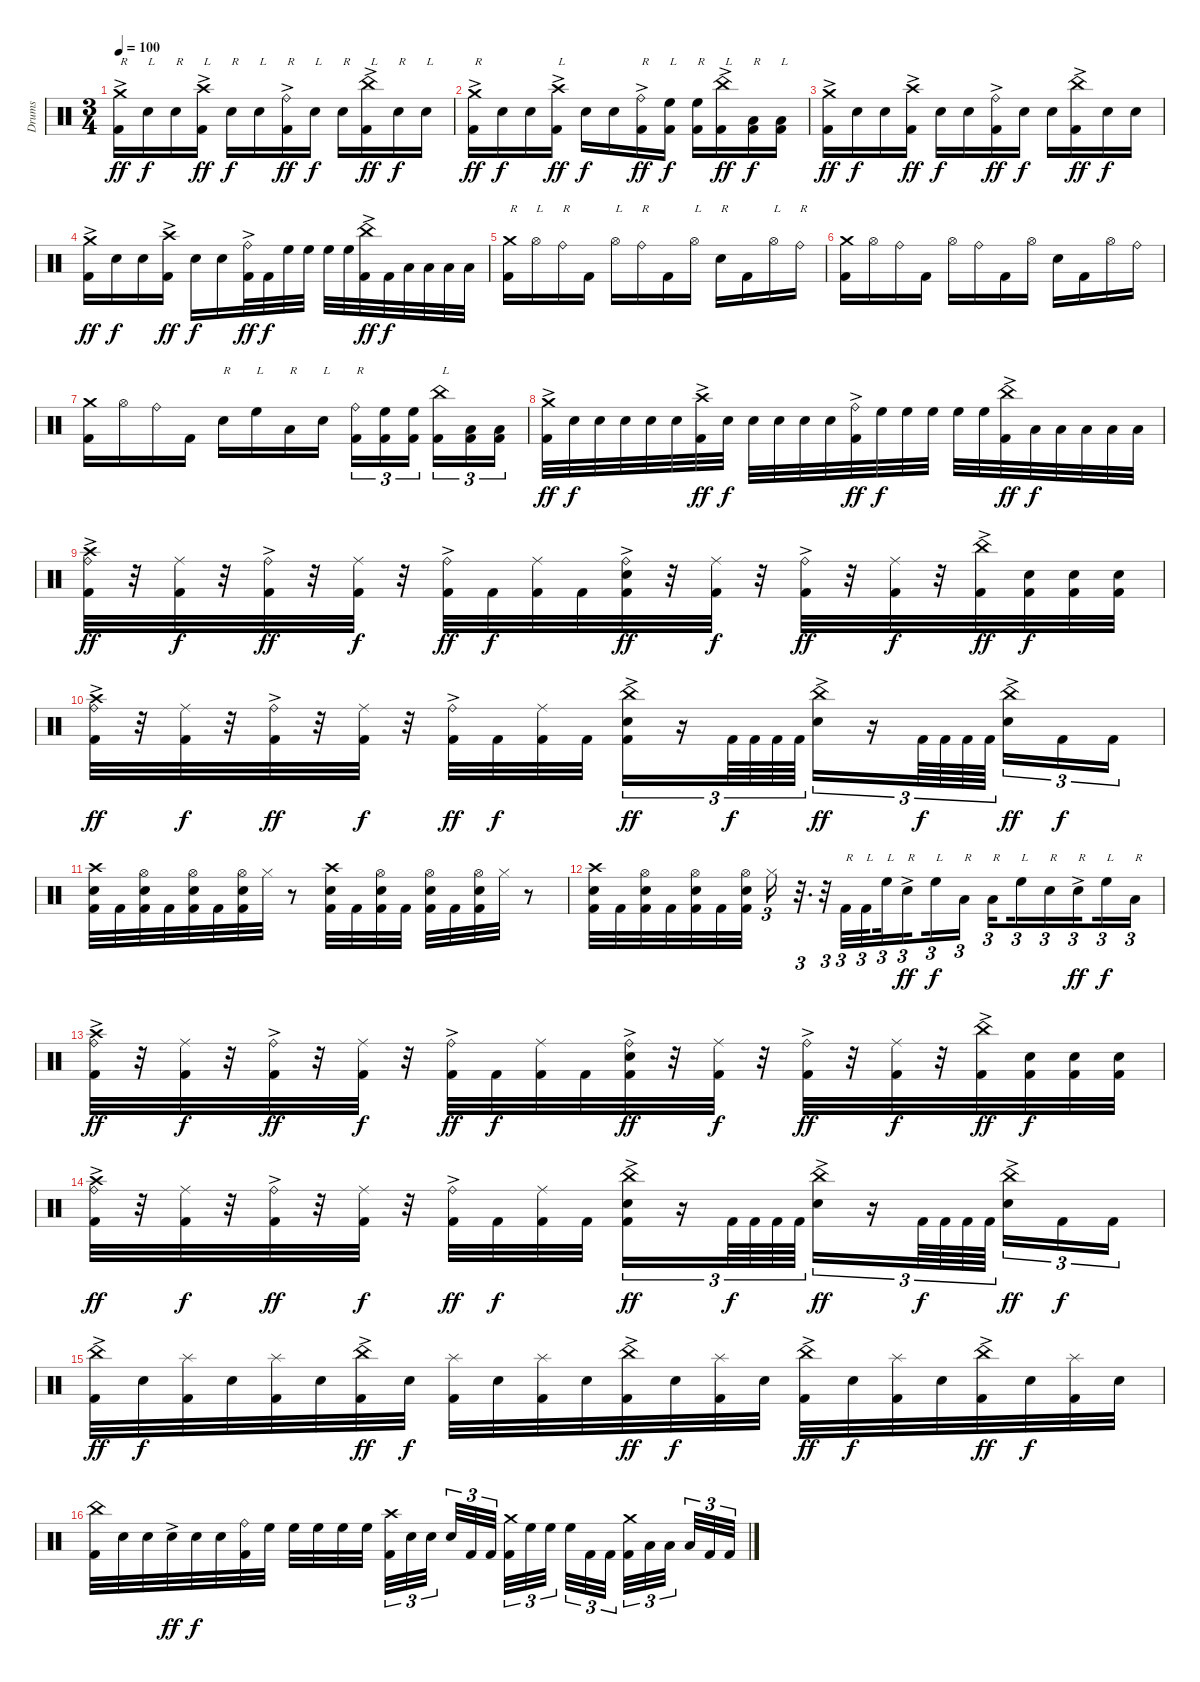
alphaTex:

\track ("Drums" "Drums") {instrument percussion}
\staff {score}
\articulation defaults
\ts (3 4)
\tempo 100
\clef neutral
\ks c
("Kick (hit) 2" "Crash medium (hit)"{ac}).16{txt "R" dy ff} "Electric Snare (hit)".16{txt "L" dy f} "Electric Snare (hit)".16{txt "R"} ("Crash high (hit)"{ac} "Kick (hit) 2").16{txt "L" dy ff} "Electric Snare (hit)".16{txt "R" dy f} "Electric Snare (hit)".16{txt "L"} ("Ride (bell)"{ac} "Kick (hit) 2").16{txt "R" dy ff} "Electric Snare (hit)".16{txt "L" dy f} "Electric Snare (hit)".16{txt "R"} ("China (hit)"{ac} "Kick (hit) 2").16{txt "L" dy ff} "Electric Snare (hit)".16{txt "R" dy f} "Electric Snare (hit)".16{txt "L"} |
("Kick (hit) 2" "Crash medium (hit)"{ac}).16{txt "R" dy ff} "Electric Snare (hit)".16{dy f} "Electric Snare (hit)".16 ("Crash high (hit)"{ac} "Kick (hit) 2").16{txt "L" dy ff} "Electric Snare (hit)".16{dy f} "Electric Snare (hit)".16 ("Ride (bell)"{ac} "Kick (hit) 2").16{txt "R" dy ff} ("Kick (hit) 2" "High Floor Tom (hit)").16{txt "L" dy f} ("High Floor Tom (hit)" "Kick (hit) 2").16{txt "R"} ("China (hit)"{ac} "Kick (hit) 2").16{txt "L" dy ff} ("Low Tom (hit)" "Kick (hit) 2").16{txt "R" dy f} ("Kick (hit) 2" "Low Tom (hit)").16{txt "L"} |
("Kick (hit) 2" "Crash medium (hit)"{ac}).16{dy ff} "Electric Snare (hit)".16{dy f} "Electric Snare (hit)".16 ("Crash high (hit)"{ac} "Kick (hit) 2").16{dy ff} "Electric Snare (hit)".16{dy f} "Electric Snare (hit)".16 ("Ride (bell)"{ac} "Kick (hit) 2").16{dy ff} "Electric Snare (hit)".16{dy f} "Electric Snare (hit)".16 ("China (hit)"{ac} "Kick (hit) 2").16{dy ff} "Electric Snare (hit)".16{dy f} "Electric Snare (hit)".16 |
("Kick (hit) 2" "Crash medium (hit)"{ac}).16{dy ff} "Electric Snare (hit)".16{dy f} "Electric Snare (hit)".16 ("Crash high (hit)"{ac} "Kick (hit) 2").16{dy ff} "Electric Snare (hit)".16{dy f} "Electric Snare (hit)".16 ("Ride (bell)"{ac} "Kick (hit) 2").32{dy ff} "Kick (hit) 2".32{dy f} "High Floor Tom (hit)".32 "High Floor Tom (hit)".32 "High Floor Tom (hit)".32 "High Floor Tom (hit)".32 ("China (hit)"{ac} "Kick (hit) 2").32{dy ff} "Kick (hit) 2".32{dy f} "Low Tom (hit)".32 "Low Tom (hit)".32 "Low Tom (hit)".32 "Low Tom (hit)".32 |
("Kick (hit) 2" "Crash medium (hit)").16{txt "R"} "Hi-Hat (open)".16{txt "L"} "Ride (bell)".16{txt "R"} "Kick (hit) 2".16 "Hi-Hat (open)".16{txt "L"} "Ride (bell)".16{txt "R"} "Kick (hit) 2".16 "Hi-Hat (open)".16{txt "L"} "Electric Snare (hit)".16{txt "R"} "Kick (hit) 2".16 "Hi-Hat (open)".16{txt "L"} "Ride (bell)".16{txt "R"} |
("Kick (hit) 2" "Crash medium (hit)").16 "Hi-Hat (open)".16 "Ride (bell)".16 "Kick (hit) 2".16 "Hi-Hat (open)".16 "Ride (bell)".16 "Kick (hit) 2".16 "Hi-Hat (open)".16 "Electric Snare (hit)".16 "Kick (hit) 2".16 "Hi-Hat (open)".16 "Ride (bell)".16 |
("Kick (hit) 2" "Crash medium (hit)").16 "Hi-Hat (open)".16 "Ride (bell)".16 "Kick (hit) 2".16 "Electric Snare (hit)".16{txt "R"} "High Floor Tom (hit)".16{txt "L"} "Low Tom (hit)".16{txt "R"} "Electric Snare (hit)".16{txt "L"} ("Ride (bell)" "Kick (hit) 2").16{tu (3 2) txt "R"} ("Kick (hit) 2" "High Floor Tom (hit)").16{tu (3 2)} ("High Floor Tom (hit)" "Kick (hit) 2").16{tu (3 2) beam splitsecondary} ("China (hit)" "Kick (hit) 2").16{tu (3 2) txt "L"} ("Low Tom (hit)" "Kick (hit) 2").16{tu (3 2)} ("Kick (hit) 2" "Low Tom (hit)").16{tu (3 2)} |
("Kick (hit) 2" "Crash medium (hit)"{ac}).32{dy ff} "Electric Snare (hit)".32{dy f} "Electric Snare (hit)".32 "Electric Snare (hit)".32 "Electric Snare (hit)".32 "Electric Snare (hit)".32 ("Crash high (hit)"{ac} "Kick (hit) 2").32{dy ff} "Electric Snare (hit)".32{dy f} "Electric Snare (hit)".32 "Electric Snare (hit)".32 "Electric Snare (hit)".32 "Electric Snare (hit)".32 ("Ride (bell)"{ac} "Kick (hit) 2").32{dy ff} "High Floor Tom (hit)".32{dy f} "High Floor Tom (hit)".32 "High Floor Tom (hit)".32 "High Floor Tom (hit)".32 "High Floor Tom (hit)".32 ("China (hit)"{ac} "Kick (hit) 2").32{dy ff} "Low Tom (hit)".32{dy f} "Low Tom (hit)".32 "Low Tom (hit)".32 "Low Tom (hit)".32 "Low Tom (hit)".32 |
("Ride (bell)"{ac} "Kick (hit) 2" "Crash high (hit)").32{dy ff} r.32 ("Ride (middle)" "Kick (hit) 2").32{dy f} r.32 ("Ride (bell)"{ac} "Kick (hit) 2").32{dy ff} r.32 ("Ride (middle)" "Kick (hit) 2").32{dy f} r.32 ("Ride (bell)"{ac} "Kick (hit) 2").32{dy ff} "Kick (hit) 2".32{dy f} ("Ride (middle)" "Kick (hit) 2").32 "Kick (hit) 2".32 ("Ride (bell)"{ac} "Kick (hit) 2" "Electric Snare (hit)").32{dy ff} r.32 ("Ride (middle)" "Kick (hit) 2").32{dy f} r.32 ("Ride (bell)"{ac} "Kick (hit) 2").32{dy ff} r.32 ("Ride (middle)" "Kick (hit) 2").32{dy f} r.32 ("China (hit)"{ac} "Kick (hit) 2").32{dy ff} ("Kick (hit) 2" "Electric Snare (hit)").32{dy f} ("Kick (hit) 2" "Electric Snare (hit)").32 ("Kick (hit) 2" "Electric Snare (hit)").32 |
("Ride (bell)"{ac} "Kick (hit) 2" "Crash high (hit)").32{dy ff} r.32 ("Ride (middle)" "Kick (hit) 2").32{dy f} r.32 ("Ride (bell)"{ac} "Kick (hit) 2").32{dy ff} r.32 ("Ride (middle)" "Kick (hit) 2").32{dy f} r.32 ("Ride (bell)"{ac} "Kick (hit) 2").32{dy ff} "Kick (hit) 2".32{dy f} ("Ride (middle)" "Kick (hit) 2").32 "Kick (hit) 2".32{beam splitsecondary} ("China (hit)" "Kick (hit) 2" "Electric Snare (hit)"{ac}).16{tu (3 2) dy ff} r.16{tu (3 2)} "Kick (hit) 2".64{tu (3 2) dy f} "Kick (hit) 2".64{tu (3 2)} "Kick (hit) 2".64{tu (3 2)} "Kick (hit) 2".64{tu (3 2)} ("China (hit)" "Electric Snare (hit)"{ac}).16{tu (3 2) dy ff} r.16{tu (3 2)} "Kick (hit) 2".64{tu (3 2) dy f} "Kick (hit) 2".64{tu (3 2)} "Kick (hit) 2".64{tu (3 2)} "Kick (hit) 2".64{tu (3 2) beam splitsecondary} ("China (hit)" "Electric Snare (hit)"{ac}).16{tu (3 2) dy ff} "Kick (hit) 2".16{tu (3 2) dy f} "Kick (hit) 2".16{tu (3 2)} |
("Crash high (hit)" "Electric Snare (hit)" "Kick (hit) 2").32 "Kick (hit) 2".32 ("Kick (hit) 2" "Electric Snare (hit)" "Hi-Hat (open)").32 "Kick (hit) 2".32 ("Hi-Hat (open)" "Electric Snare (hit)" "Kick (hit) 2").32 "Kick (hit) 2".32 ("Hi-Hat (open)" "Electric Snare (hit)" "Kick (hit) 2").32 "Hi-Hat (closed)".32 r.8 ("Crash high (hit)" "Electric Snare (hit)" "Kick (hit) 2").32 "Kick (hit) 2".32 ("Kick (hit) 2" "Electric Snare (hit)" "Hi-Hat (open)").32 "Kick (hit) 2".32 ("Hi-Hat (open)" "Electric Snare (hit)" "Kick (hit) 2").32 "Kick (hit) 2".32 ("Hi-Hat (open)" "Electric Snare (hit)" "Kick (hit) 2").32 "Hi-Hat (closed)".32 r.8 |
("Crash high (hit)" "Electric Snare (hit)" "Kick (hit) 2").32 "Kick (hit) 2".32 ("Kick (hit) 2" "Electric Snare (hit)" "Hi-Hat (open)").32 "Kick (hit) 2".32 ("Hi-Hat (open)" "Electric Snare (hit)" "Kick (hit) 2").32 "Kick (hit) 2".32 ("Hi-Hat (open)" "Electric Snare (hit)" "Kick (hit) 2").32{beam splitsecondary} "Hi-Hat (closed)".16{tu (3 2)} r.32{d tu (3 2)} r.32{tu (3 2)} "Kick (hit) 2".32{tu (3 2) txt "R"} "Kick (hit) 2".32{tu (3 2) txt "L" beam splitsecondary} "High Floor Tom (hit)".32{tu (3 2) txt "L"} "Electric Snare (hit)"{ac}.16{tu (3 2) txt "R" dy ff beam splitsecondary} "High Floor Tom (hit)".16{tu (3 2) txt "L" dy f} "Low Tom (hit)".16{tu (3 2) txt "R"} "Low Tom (hit)".16{tu (3 2) txt "R" beam splitsecondary} "High Floor Tom (hit)".16{tu (3 2) txt "L"} "Electric Snare (hit)".16{tu (3 2) txt "R"} "Electric Snare (hit)"{ac}.16{tu (3 2) txt "R" dy ff beam splitsecondary} "High Floor Tom (hit)".16{tu (3 2) txt "L" dy f} "Low Tom (hit)".16{tu (3 2) txt "R"} |
("Ride (bell)"{ac} "Kick (hit) 2" "Crash high (hit)").32{dy ff} r.32 ("Ride (middle)" "Kick (hit) 2").32{dy f} r.32 ("Ride (bell)"{ac} "Kick (hit) 2").32{dy ff} r.32 ("Ride (middle)" "Kick (hit) 2").32{dy f} r.32 ("Ride (bell)"{ac} "Kick (hit) 2").32{dy ff} "Kick (hit) 2".32{dy f} ("Ride (middle)" "Kick (hit) 2").32 "Kick (hit) 2".32 ("Ride (bell)"{ac} "Kick (hit) 2" "Electric Snare (hit)").32{dy ff} r.32 ("Ride (middle)" "Kick (hit) 2").32{dy f} r.32 ("Ride (bell)"{ac} "Kick (hit) 2").32{dy ff} r.32 ("Ride (middle)" "Kick (hit) 2").32{dy f} r.32 ("China (hit)"{ac} "Kick (hit) 2").32{dy ff} ("Kick (hit) 2" "Electric Snare (hit)").32{dy f} ("Kick (hit) 2" "Electric Snare (hit)").32 ("Kick (hit) 2" "Electric Snare (hit)").32 |
("Ride (bell)"{ac} "Kick (hit) 2" "Crash high (hit)").32{dy ff} r.32 ("Ride (middle)" "Kick (hit) 2").32{dy f} r.32 ("Ride (bell)"{ac} "Kick (hit) 2").32{dy ff} r.32 ("Ride (middle)" "Kick (hit) 2").32{dy f} r.32 ("Ride (bell)"{ac} "Kick (hit) 2").32{dy ff} "Kick (hit) 2".32{dy f} ("Ride (middle)" "Kick (hit) 2").32 "Kick (hit) 2".32{beam splitsecondary} ("China (hit)" "Kick (hit) 2" "Electric Snare (hit)"{ac}).16{tu (3 2) dy ff} r.16{tu (3 2)} "Kick (hit) 2".64{tu (3 2) dy f} "Kick (hit) 2".64{tu (3 2)} "Kick (hit) 2".64{tu (3 2)} "Kick (hit) 2".64{tu (3 2)} ("China (hit)" "Electric Snare (hit)"{ac}).16{tu (3 2) dy ff} r.16{tu (3 2)} "Kick (hit) 2".64{tu (3 2) dy f} "Kick (hit) 2".64{tu (3 2)} "Kick (hit) 2".64{tu (3 2)} "Kick (hit) 2".64{tu (3 2) beam splitsecondary} ("China (hit)" "Electric Snare (hit)"{ac}).16{tu (3 2) dy ff} "Kick (hit) 2".16{tu (3 2) dy f} "Kick (hit) 2".16{tu (3 2)} |
("China (hit)"{ac} "Kick (hit) 2").32{dy ff} "Electric Snare (hit)".32{dy f} ("Splash (hit)" "Kick (hit) 2").32 "Electric Snare (hit)".32 ("Splash (hit)" "Kick (hit) 2").32 "Electric Snare (hit)".32 ("China (hit)"{ac} "Kick (hit) 2").32{dy ff} "Electric Snare (hit)".32{dy f} ("Splash (hit)" "Kick (hit) 2").32 "Electric Snare (hit)".32 ("Splash (hit)" "Kick (hit) 2").32 "Electric Snare (hit)".32 ("China (hit)"{ac} "Kick (hit) 2").32{dy ff} "Electric Snare (hit)".32{dy f} ("Splash (hit)" "Kick (hit) 2").32 "Electric Snare (hit)".32 ("China (hit)"{ac} "Kick (hit) 2").32{dy ff} "Electric Snare (hit)".32{dy f} ("Splash (hit)" "Kick (hit) 2").32 "Electric Snare (hit)".32 ("China (hit)"{ac} "Kick (hit) 2").32{dy ff} "Electric Snare (hit)".32{dy f} ("Splash (hit)" "Kick (hit) 2").32 "Electric Snare (hit)".32 |
("China (hit)" "Kick (hit) 2").32 "Electric Snare (hit)".32 "Electric Snare (hit)".32 "Electric Snare (hit)"{ac}.32{dy ff} "Electric Snare (hit)".32{dy f} "Electric Snare (hit)".32 ("Ride (bell)" "Kick (hit) 2").32 "High Floor Tom (hit)".32 "High Floor Tom (hit)".32 "High Floor Tom (hit)".32 "High Floor Tom (hit)".32 "High Floor Tom (hit)".32{beam splitsecondary} ("Crash high (hit)" "Kick (hit) 2").32{tu (3 2)} "Electric Snare (hit)".32{tu (3 2)} "Electric Snare (hit)".32{tu (3 2) beam splitsecondary} "Electric Snare (hit)".32{tu (3 2)} "Kick (hit) 2".32{tu (3 2)} "Kick (hit) 2".32{tu (3 2)} ("Crash medium (hit)" "Kick (hit) 2").32{tu (3 2)} "High Floor Tom (hit)".32{tu (3 2)} "High Floor Tom (hit)".32{tu (3 2) beam splitsecondary} "High Floor Tom (hit)".32{tu (3 2)} "Kick (hit) 2".32{tu (3 2)} "Kick (hit) 2".32{tu (3 2) beam splitsecondary} ("Crash medium (hit)" "Kick (hit) 2").32{tu (3 2)} "Low Tom (hit)".32{tu (3 2)} "Low Tom (hit)".32{tu (3 2) beam splitsecondary} "Low Tom (hit)".32{tu (3 2)} "Kick (hit) 2".32{tu (3 2)} "Kick (hit) 2".32{tu (3 2)}
